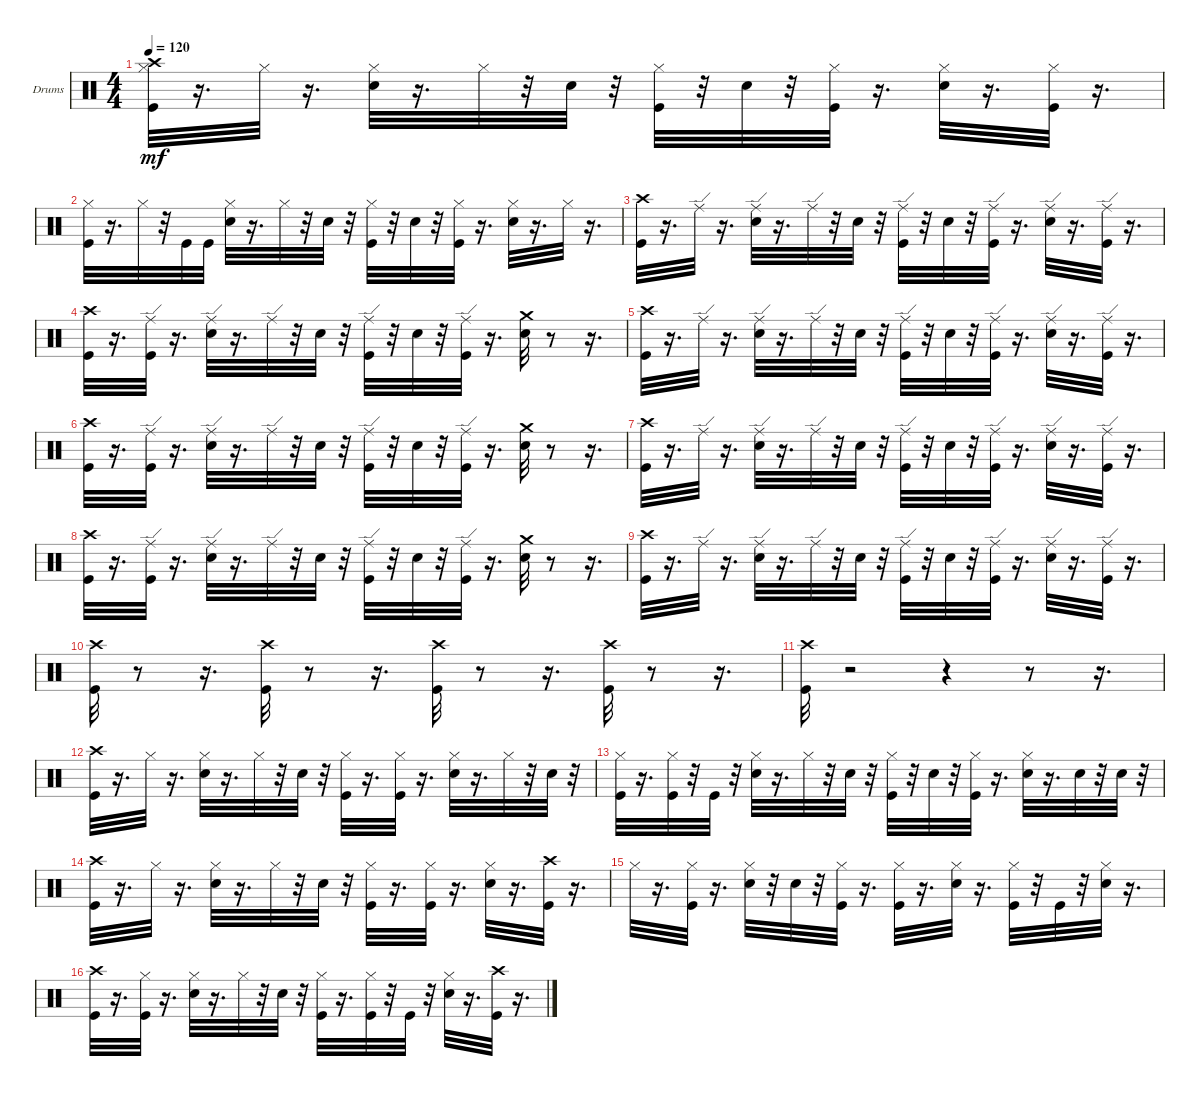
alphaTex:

\bracketExtendMode groupsimilarinstruments
\firstSystemTrackNameOrientation horizontal
\otherSystemsTrackNameOrientation horizontal
\track ("" "Drums") {instrument percussion}
\staff {score}
\articulation defaults
\ts (4 4)
\tempo 120
\clef neutral
\ks c
("Hi-Hat (closed)" "Crash high (hit)" "Kick (hit)").32{dy mf} r.16{d} "Hi-Hat (closed)".32 r.16{d} ("Hi-Hat (closed)" "Snare (hit) 2").32 r.16{d} "Hi-Hat (closed)".32 r.32 "Snare (hit) 2".32 r.32 ("Kick (hit)" "Hi-Hat (closed)").32 r.32 "Snare (hit) 2".32 r.32 ("Kick (hit)" "Hi-Hat (closed)").32 r.16{d} ("Snare (hit) 2" "Hi-Hat (closed)").32 r.16{d} ("Kick (hit)" "Hi-Hat (closed)").32 r.16{d} |
("Hi-Hat (closed)" "Kick (hit)").32 r.16{d} "Hi-Hat (closed)".32 r.32 "Kick (hit)".32 "Kick (hit)".32 ("Hi-Hat (closed)" "Snare (hit) 2").32 r.16{d} "Hi-Hat (closed)".32 r.32 "Snare (hit) 2".32 r.32 ("Kick (hit)" "Hi-Hat (closed)").32 r.32 "Snare (hit) 2".32 r.32 ("Kick (hit)" "Hi-Hat (closed)").32 r.16{d} ("Snare (hit) 2" "Hi-Hat (closed)").32 r.16{d} "Hi-Hat (closed)".32 r.16{d} |
("Crash high (hit)" "Kick (hit)").32 r.16{d} "Ride (edge)".32 r.16{d} ("Snare (hit) 2" "Ride (edge)").32 r.16{d} "Ride (edge)".32 r.32 "Snare (hit) 2".32 r.32 ("Kick (hit)" "Ride (edge)").32 r.32 "Snare (hit) 2".32 r.32 ("Kick (hit)" "Ride (edge)").32 r.16{d} ("Snare (hit) 2" "Ride (edge)").32 r.16{d} ("Kick (hit)" "Ride (edge)").32 r.16{d} |
("Crash high (hit)" "Kick (hit)").32 r.16{d} ("Kick (hit)" "Ride (edge)").32 r.16{d} ("Snare (hit) 2" "Ride (edge)").32 r.16{d} "Ride (edge)".32 r.32 "Snare (hit) 2".32 r.32 ("Kick (hit)" "Ride (edge)").32 r.32 "Snare (hit) 2".32 r.32 ("Kick (hit)" "Ride (edge)").32 r.16{d} ("Crash medium (hit)" "Snare (hit) 2").32 r.8 r.16{d} |
("Crash high (hit)" "Kick (hit)").32 r.16{d} "Ride (edge)".32 r.16{d} ("Snare (hit) 2" "Ride (edge)").32 r.16{d} "Ride (edge)".32 r.32 "Snare (hit) 2".32 r.32 ("Kick (hit)" "Ride (edge)").32 r.32 "Snare (hit) 2".32 r.32 ("Kick (hit)" "Ride (edge)").32 r.16{d} ("Snare (hit) 2" "Ride (edge)").32 r.16{d} ("Kick (hit)" "Ride (edge)").32 r.16{d} |
("Crash high (hit)" "Kick (hit)").32 r.16{d} ("Kick (hit)" "Ride (edge)").32 r.16{d} ("Snare (hit) 2" "Ride (edge)").32 r.16{d} "Ride (edge)".32 r.32 "Snare (hit) 2".32 r.32 ("Kick (hit)" "Ride (edge)").32 r.32 "Snare (hit) 2".32 r.32 ("Kick (hit)" "Ride (edge)").32 r.16{d} ("Crash medium (hit)" "Snare (hit) 2").32 r.8 r.16{d} |
("Crash high (hit)" "Kick (hit)").32 r.16{d} "Ride (edge)".32 r.16{d} ("Snare (hit) 2" "Ride (edge)").32 r.16{d} "Ride (edge)".32 r.32 "Snare (hit) 2".32 r.32 ("Kick (hit)" "Ride (edge)").32 r.32 "Snare (hit) 2".32 r.32 ("Kick (hit)" "Ride (edge)").32 r.16{d} ("Snare (hit) 2" "Ride (edge)").32 r.16{d} ("Kick (hit)" "Ride (edge)").32 r.16{d} |
("Crash high (hit)" "Kick (hit)").32 r.16{d} ("Kick (hit)" "Ride (edge)").32 r.16{d} ("Snare (hit) 2" "Ride (edge)").32 r.16{d} "Ride (edge)".32 r.32 "Snare (hit) 2".32 r.32 ("Kick (hit)" "Ride (edge)").32 r.32 "Snare (hit) 2".32 r.32 ("Kick (hit)" "Ride (edge)").32 r.16{d} ("Crash medium (hit)" "Snare (hit) 2").32 r.8 r.16{d} |
("Crash high (hit)" "Kick (hit)").32 r.16{d} "Ride (edge)".32 r.16{d} ("Snare (hit) 2" "Ride (edge)").32 r.16{d} "Ride (edge)".32 r.32 "Snare (hit) 2".32 r.32 ("Kick (hit)" "Ride (edge)").32 r.32 "Snare (hit) 2".32 r.32 ("Kick (hit)" "Ride (edge)").32 r.16{d} ("Snare (hit) 2" "Ride (edge)").32 r.16{d} ("Kick (hit)" "Ride (edge)").32 r.16{d} |
("Crash high (hit)" "Kick (hit)").32 r.8 r.16{d} ("Crash high (hit)" "Kick (hit)").32 r.8 r.16{d} ("Crash high (hit)" "Kick (hit)").32 r.8 r.16{d} ("Crash high (hit)" "Kick (hit)").32 r.8 r.16{d} |
("Crash high (hit)" "Kick (hit)").32 r.2 r.4 r.8 r.16{d} |
("Crash high (hit)" "Kick (hit)").32 r.16{d} "Hi-Hat (closed)".32 r.16{d} ("Snare (hit) 2" "Hi-Hat (closed)").32 r.16{d} "Hi-Hat (closed)".32 r.32 "Snare (hit) 2".32 r.32 ("Kick (hit)" "Hi-Hat (closed)").32 r.16{d} ("Kick (hit)" "Hi-Hat (closed)").32 r.16{d} ("Snare (hit) 2" "Hi-Hat (closed)").32 r.16{d} "Hi-Hat (closed)".32 r.32 "Snare (hit) 2".32 r.32 |
("Hi-Hat (closed)" "Kick (hit)").32 r.16{d} ("Hi-Hat (closed)" "Kick (hit)").32 r.32 "Kick (hit)".32 r.32 ("Hi-Hat (closed)" "Snare (hit) 2").32 r.16{d} "Hi-Hat (closed)".32 r.32 "Snare (hit) 2".32 r.32 ("Hi-Hat (closed)" "Kick (hit)").32 r.32 "Snare (hit) 2".32 r.32 ("Hi-Hat (closed)" "Kick (hit)").32 r.16{d} ("Snare (hit) 2" "Hi-Hat (closed)").32 r.16{d} "Snare (hit) 2".32 r.32 "Snare (hit) 2".32 r.32 |
("Crash high (hit)" "Kick (hit)").32 r.16{d} "Hi-Hat (closed)".32 r.16{d} ("Snare (hit) 2" "Hi-Hat (closed)").32 r.16{d} "Hi-Hat (closed)".32 r.32 "Snare (hit) 2".32 r.32 ("Kick (hit)" "Hi-Hat (closed)").32 r.16{d} ("Kick (hit)" "Hi-Hat (closed)").32 r.16{d} ("Snare (hit) 2" "Hi-Hat (closed)").32 r.16{d} ("Crash high (hit)" "Kick (hit)").32 r.16{d} |
"Hi-Hat (closed)".32 r.16{d} ("Hi-Hat (closed)" "Kick (hit)").32 r.16{d} ("Snare (hit) 2" "Hi-Hat (closed)").32 r.32 "Snare (hit) 2".32 r.32 ("Kick (hit)" "Hi-Hat (closed)").32 r.16{d} ("Kick (hit)" "Hi-Hat (closed)").32 r.16{d} ("Snare (hit) 2" "Hi-Hat (closed)").32 r.16{d} ("Kick (hit)" "Hi-Hat (closed)").32 r.32 "Kick (hit)".32 r.32 ("Hi-Hat (closed)" "Snare (hit) 2").32 r.16{d} |
("Crash high (hit)" "Kick (hit)").32 r.16{d} ("Kick (hit)" "Hi-Hat (closed)").32 r.16{d} ("Snare (hit) 2" "Hi-Hat (closed)").32 r.16{d} "Hi-Hat (closed)".32 r.32 "Snare (hit) 2".32 r.32 ("Kick (hit)" "Hi-Hat (closed)").32 r.16{d} ("Kick (hit)" "Hi-Hat (closed)").32 r.32 "Kick (hit)".32 r.32 ("Snare (hit) 2" "Hi-Hat (closed)").32 r.16{d} ("Crash high (hit)" "Kick (hit)").32 r.16{d}
